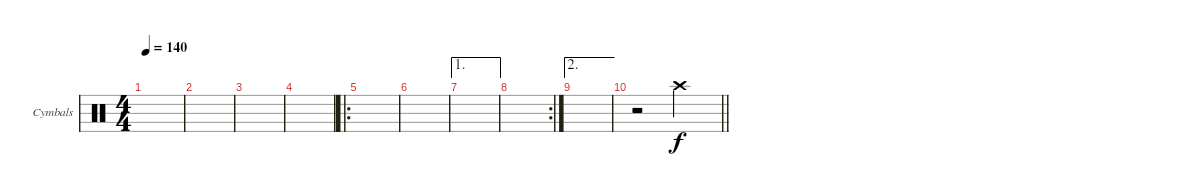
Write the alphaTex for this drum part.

\bracketExtendMode groupsimilarinstruments
\firstSystemTrackNameOrientation horizontal
\otherSystemsTrackNameOrientation horizontal
\track ("Cymbals" "Cymbals") {instrument percussion}
\staff {score}
\articulation defaults
\ts (4 4)
\tempo 140
\clef neutral
\scale
0.333333
\ks c
|
\scale
0.333333 |
\scale
0.311111 |
\scale
0.311111 |
\ro
\scale
0.377778 |
\scale
0.321839 |
\ae 1
\scale
0.321839 |
\rc 2
\scale
0.356322 |
\ae 2
\scale
0.333333 |
\scale
0.333333
\barLineRight lightlight
r.2 "Crash high (hit)".2 |
\scale
0.333333 |
\scale
0.333333 |
\scale
0.333333 |
\scale
0.333333 |
\scale
0.333333 |
\scale
0.333333
